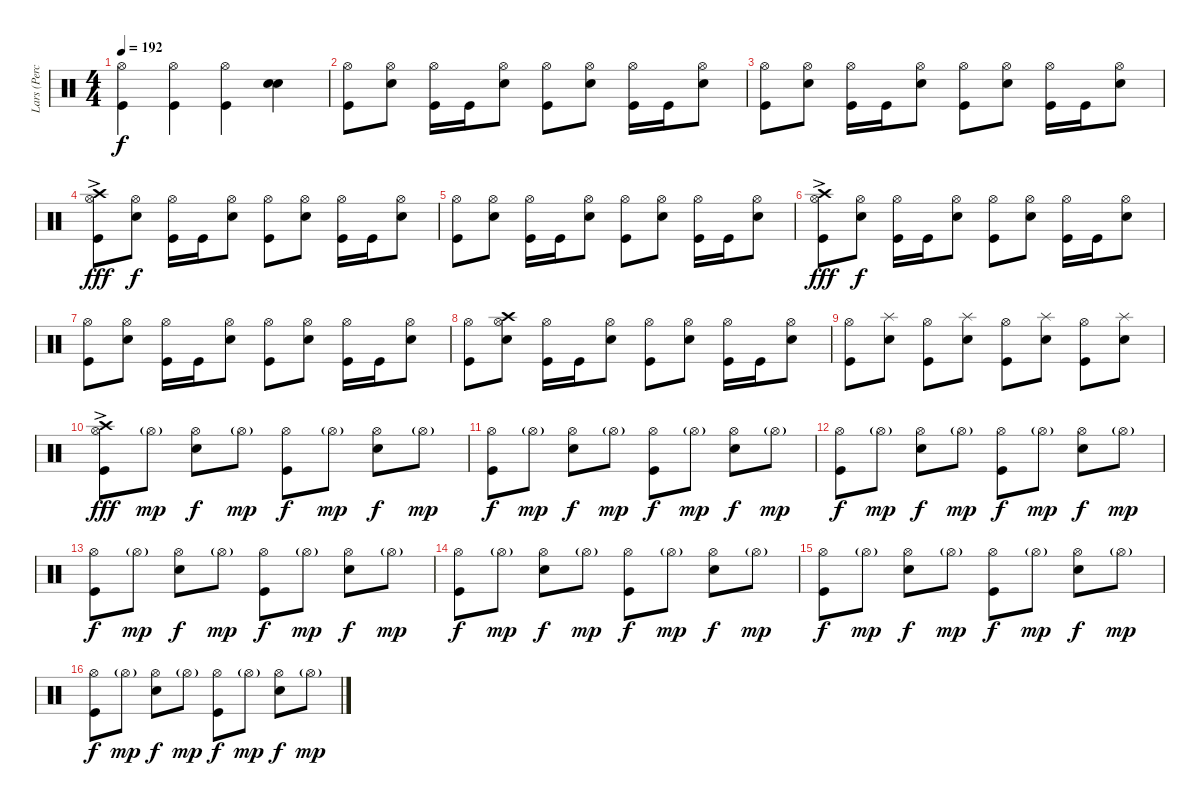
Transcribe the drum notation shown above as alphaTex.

\track ("Lars (Percussion)" "Lars (Perc") {instrument percussion}
\staff {score}
\articulation defaults
\ts (4 4)
\tempo 192
\clef neutral
\ks c
("Hi-Hat (open)" "Kick (hit)").4{dy f} ("Hi-Hat (open)" "Kick (hit)").4 ("Hi-Hat (open)" "Kick (hit)").4 ("Snare (hit) 2" "Snare (hit) 2").4{bd 240} |
("Hi-Hat (open)" "Kick (hit)").8 ("Hi-Hat (open)" "Snare (hit) 2").8 ("Hi-Hat (open)" "Kick (hit)").16 "Kick (hit)".16 ("Hi-Hat (open)" "Snare (hit) 2").8 ("Hi-Hat (open)" "Kick (hit)").8 ("Hi-Hat (open)" "Snare (hit) 2").8 ("Hi-Hat (open)" "Kick (hit)").16 "Kick (hit)".16 ("Hi-Hat (open)" "Snare (hit) 2").8 |
("Hi-Hat (open)" "Kick (hit)").8 ("Hi-Hat (open)" "Snare (hit) 2").8 ("Hi-Hat (open)" "Kick (hit)").16 "Kick (hit)".16 ("Hi-Hat (open)" "Snare (hit) 2").8 ("Hi-Hat (open)" "Kick (hit)").8 ("Hi-Hat (open)" "Snare (hit) 2").8 ("Hi-Hat (open)" "Kick (hit)").16 "Kick (hit)".16 ("Hi-Hat (open)" "Snare (hit) 2").8 |
("Hi-Hat (open)" "Crash high (hit)" "Kick (hit)"{ac}).8{dy fff} ("Hi-Hat (open)" "Snare (hit) 2").8{dy f} ("Hi-Hat (open)" "Kick (hit)").16 "Kick (hit)".16 ("Hi-Hat (open)" "Snare (hit) 2").8 ("Hi-Hat (open)" "Kick (hit)").8 ("Hi-Hat (open)" "Snare (hit) 2").8 ("Hi-Hat (open)" "Kick (hit)").16 "Kick (hit)".16 ("Hi-Hat (open)" "Snare (hit) 2").8 |
("Hi-Hat (open)" "Kick (hit)").8 ("Hi-Hat (open)" "Snare (hit) 2").8 ("Hi-Hat (open)" "Kick (hit)").16 "Kick (hit)".16 ("Hi-Hat (open)" "Snare (hit) 2").8 ("Hi-Hat (open)" "Kick (hit)").8 ("Hi-Hat (open)" "Snare (hit) 2").8 ("Hi-Hat (open)" "Kick (hit)").16 "Kick (hit)".16 ("Hi-Hat (open)" "Snare (hit) 2").8 |
("Hi-Hat (open)" "Crash high (hit)" "Kick (hit)"{ac}).8{dy fff} ("Hi-Hat (open)" "Snare (hit) 2").8{dy f} ("Hi-Hat (open)" "Kick (hit)").16 "Kick (hit)".16 ("Hi-Hat (open)" "Snare (hit) 2").8 ("Hi-Hat (open)" "Kick (hit)").8 ("Hi-Hat (open)" "Snare (hit) 2").8 ("Hi-Hat (open)" "Kick (hit)").16 "Kick (hit)".16 ("Hi-Hat (open)" "Snare (hit) 2").8 |
("Hi-Hat (open)" "Kick (hit)").8 ("Hi-Hat (open)" "Snare (hit) 2").8 ("Hi-Hat (open)" "Kick (hit)").16 "Kick (hit)".16 ("Hi-Hat (open)" "Snare (hit) 2").8 ("Hi-Hat (open)" "Kick (hit)").8 ("Hi-Hat (open)" "Snare (hit) 2").8 ("Hi-Hat (open)" "Kick (hit)").16 "Kick (hit)".16 ("Hi-Hat (open)" "Snare (hit) 2").8 |
("Hi-Hat (open)" "Kick (hit)").8 ("Hi-Hat (open)" "Crash high (hit)" "Snare (hit) 2").8 ("Hi-Hat (open)" "Kick (hit)").16 "Kick (hit)".16 ("Hi-Hat (open)" "Snare (hit) 2").8 ("Hi-Hat (open)" "Kick (hit)").8 ("Hi-Hat (open)" "Snare (hit) 2").8 ("Hi-Hat (open)" "Kick (hit)").16 "Kick (hit)".16 ("Hi-Hat (open)" "Snare (hit) 2").8 |
("Hi-Hat (open)" "Kick (hit)").8 ("Splash (hit)" "Snare (hit) 2").8 ("Hi-Hat (open)" "Kick (hit)").8 ("Splash (hit)" "Snare (hit) 2").8 ("Hi-Hat (open)" "Kick (hit)").8 ("Splash (hit)" "Snare (hit) 2").8 ("Hi-Hat (open)" "Kick (hit)").8 ("Splash (hit)" "Snare (hit) 2").8 |
("Hi-Hat (open)" "Crash high (hit)" "Kick (hit)"{ac}).8{dy fff} "Hi-Hat (open)"{g}.8{dy mp} ("Hi-Hat (open)" "Snare (hit) 2").8{dy f} "Hi-Hat (open)"{g}.8{dy mp} ("Hi-Hat (open)" "Kick (hit)").8{dy f} "Hi-Hat (open)"{g}.8{dy mp} ("Hi-Hat (open)" "Snare (hit) 2").8{dy f} "Hi-Hat (open)"{g}.8{dy mp} |
("Hi-Hat (open)" "Kick (hit)").8{dy f} "Hi-Hat (open)"{g}.8{dy mp} ("Hi-Hat (open)" "Snare (hit) 2").8{dy f} "Hi-Hat (open)"{g}.8{dy mp} ("Hi-Hat (open)" "Kick (hit)").8{dy f} "Hi-Hat (open)"{g}.8{dy mp} ("Hi-Hat (open)" "Snare (hit) 2").8{dy f} "Hi-Hat (open)"{g}.8{dy mp} |
("Hi-Hat (open)" "Kick (hit)").8{dy f} "Hi-Hat (open)"{g}.8{dy mp} ("Hi-Hat (open)" "Snare (hit) 2").8{dy f} "Hi-Hat (open)"{g}.8{dy mp} ("Hi-Hat (open)" "Kick (hit)").8{dy f} "Hi-Hat (open)"{g}.8{dy mp} ("Hi-Hat (open)" "Snare (hit) 2").8{dy f} "Hi-Hat (open)"{g}.8{dy mp} |
("Hi-Hat (open)" "Kick (hit)").8{dy f} "Hi-Hat (open)"{g}.8{dy mp} ("Hi-Hat (open)" "Snare (hit) 2").8{dy f} "Hi-Hat (open)"{g}.8{dy mp} ("Hi-Hat (open)" "Kick (hit)").8{dy f} "Hi-Hat (open)"{g}.8{dy mp} ("Hi-Hat (open)" "Snare (hit) 2").8{dy f} "Hi-Hat (open)"{g}.8{dy mp} |
("Hi-Hat (open)" "Kick (hit)").8{dy f} "Hi-Hat (open)"{g}.8{dy mp} ("Hi-Hat (open)" "Snare (hit) 2").8{dy f} "Hi-Hat (open)"{g}.8{dy mp} ("Hi-Hat (open)" "Kick (hit)").8{dy f} "Hi-Hat (open)"{g}.8{dy mp} ("Hi-Hat (open)" "Snare (hit) 2").8{dy f} "Hi-Hat (open)"{g}.8{dy mp} |
("Hi-Hat (open)" "Kick (hit)").8{dy f} "Hi-Hat (open)"{g}.8{dy mp} ("Hi-Hat (open)" "Snare (hit) 2").8{dy f} "Hi-Hat (open)"{g}.8{dy mp} ("Hi-Hat (open)" "Kick (hit)").8{dy f} "Hi-Hat (open)"{g}.8{dy mp} ("Hi-Hat (open)" "Snare (hit) 2").8{dy f} "Hi-Hat (open)"{g}.8{dy mp} |
("Hi-Hat (open)" "Kick (hit)").8{dy f} "Hi-Hat (open)"{g}.8{dy mp} ("Hi-Hat (open)" "Snare (hit) 2").8{dy f} "Hi-Hat (open)"{g}.8{dy mp} ("Hi-Hat (open)" "Kick (hit)").8{dy f} "Hi-Hat (open)"{g}.8{dy mp} ("Hi-Hat (open)" "Snare (hit) 2").8{dy f} "Hi-Hat (open)"{g}.8{dy mp}
